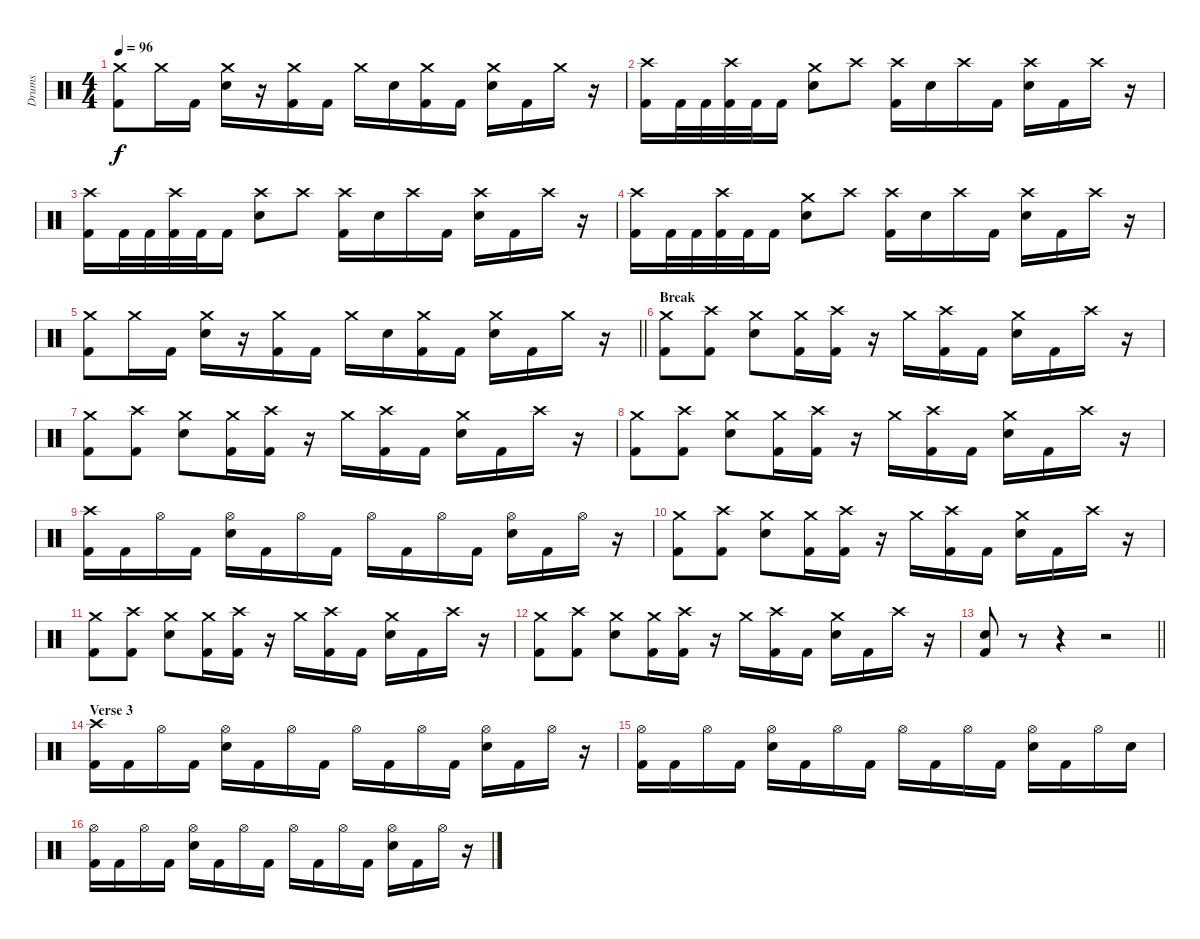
\track ("Drums" "Drums") {instrument percussion}
\staff {score}
\articulation defaults
\ts (4 4)
\tempo 96
\clef neutral
\ks c
("Crash medium (hit)" "Kick (hit) 2").8{dy f} "Crash medium (hit)".16 "Kick (hit) 2".16 ("Crash medium (hit)" "Electric Snare (hit)").16 r.16 ("Crash medium (hit)" "Kick (hit) 2").16 "Kick (hit) 2".16 "Crash medium (hit)".16 "Electric Snare (hit)".16 ("Crash medium (hit)" "Kick (hit) 2").16 "Kick (hit) 2".16 ("Crash medium (hit)" "Electric Snare (hit)").16 "Kick (hit) 2".16 "Crash medium (hit)".16 r.16 |
("Crash high (hit)" "Kick (hit) 2").16 "Kick (hit) 2".32 "Kick (hit) 2".32 ("Crash high (hit)" "Kick (hit) 2").32 "Kick (hit) 2".32 "Kick (hit) 2".16 ("Crash medium (hit)" "Electric Snare (hit)").8 "Crash high (hit)".8 ("Crash high (hit)" "Kick (hit) 2").16 "Electric Snare (hit)".16 "Crash high (hit)".16 "Kick (hit) 2".16 ("Crash high (hit)" "Electric Snare (hit)").16 "Kick (hit) 2".16 "Crash high (hit)".16 r.16 |
("Crash high (hit)" "Kick (hit) 2").16 "Kick (hit) 2".32 "Kick (hit) 2".32 ("Crash high (hit)" "Kick (hit) 2").32 "Kick (hit) 2".32 "Kick (hit) 2".16 ("Crash high (hit)" "Electric Snare (hit)").8 "Crash high (hit)".8 ("Crash high (hit)" "Kick (hit) 2").16 "Electric Snare (hit)".16 "Crash high (hit)".16 "Kick (hit) 2".16 ("Crash high (hit)" "Electric Snare (hit)").16 "Kick (hit) 2".16 "Crash high (hit)".16 r.16 |
("Crash high (hit)" "Kick (hit) 2").16 "Kick (hit) 2".32 "Kick (hit) 2".32 ("Crash high (hit)" "Kick (hit) 2").32 "Kick (hit) 2".32 "Kick (hit) 2".16 ("Crash medium (hit)" "Electric Snare (hit)").8 "Crash high (hit)".8 ("Crash high (hit)" "Kick (hit) 2").16 "Electric Snare (hit)".16 "Crash high (hit)".16 "Kick (hit) 2".16 ("Crash high (hit)" "Electric Snare (hit)").16 "Kick (hit) 2".16 "Crash high (hit)".16 r.16 |
\barLineRight lightlight
("Crash medium (hit)" "Kick (hit) 2").8 "Crash medium (hit)".16 "Kick (hit) 2".16 ("Crash medium (hit)" "Electric Snare (hit)").16 r.16 ("Crash medium (hit)" "Kick (hit) 2").16 "Kick (hit) 2".16 "Crash medium (hit)".16 "Electric Snare (hit)".16 ("Crash medium (hit)" "Kick (hit) 2").16 "Kick (hit) 2".16 ("Crash medium (hit)" "Electric Snare (hit)").16 "Kick (hit) 2".16 "Crash medium (hit)".16 r.16 |
\section ("" "Break")
("Kick (hit) 2" "Crash medium (hit)").8 ("Kick (hit) 2" "Crash high (hit)").8 ("Electric Snare (hit)" "Crash medium (hit)").8 ("Kick (hit) 2" "Crash medium (hit)").16 ("Kick (hit) 2" "Crash high (hit)").16 r.16 "Crash medium (hit)".16 ("Crash high (hit)" "Kick (hit) 2").16 "Kick (hit) 2".16 ("Crash medium (hit)" "Electric Snare (hit)").16 "Kick (hit) 2".16 "Crash high (hit)".16 r.16 |
("Kick (hit) 2" "Crash medium (hit)").8 ("Kick (hit) 2" "Crash high (hit)").8 ("Electric Snare (hit)" "Crash medium (hit)").8 ("Kick (hit) 2" "Crash medium (hit)").16 ("Kick (hit) 2" "Crash high (hit)").16 r.16 "Crash medium (hit)".16 ("Crash high (hit)" "Kick (hit) 2").16 "Kick (hit) 2".16 ("Crash medium (hit)" "Electric Snare (hit)").16 "Kick (hit) 2".16 "Crash high (hit)".16 r.16 |
("Kick (hit) 2" "Crash medium (hit)").8 ("Kick (hit) 2" "Crash high (hit)").8 ("Electric Snare (hit)" "Crash medium (hit)").8 ("Kick (hit) 2" "Crash medium (hit)").16 ("Kick (hit) 2" "Crash high (hit)").16 r.16 "Crash medium (hit)".16 ("Crash high (hit)" "Kick (hit) 2").16 "Kick (hit) 2".16 ("Crash medium (hit)" "Electric Snare (hit)").16 "Kick (hit) 2".16 "Crash high (hit)".16 r.16 |
("Crash high (hit)" "Kick (hit) 2").16 "Kick (hit) 2".16 "Hi-Hat (open)".16 "Kick (hit) 2".16 ("Hi-Hat (open)" "Electric Snare (hit)").16 "Kick (hit) 2".16 "Hi-Hat (open)".16 "Kick (hit) 2".16 "Hi-Hat (open)".16 "Kick (hit) 2".16 "Hi-Hat (open)".16 "Kick (hit) 2".16 ("Hi-Hat (open)" "Electric Snare (hit)").16 "Kick (hit) 2".16 "Hi-Hat (open)".16 r.16 |
("Kick (hit) 2" "Crash medium (hit)").8 ("Kick (hit) 2" "Crash high (hit)").8 ("Electric Snare (hit)" "Crash medium (hit)").8 ("Kick (hit) 2" "Crash medium (hit)").16 ("Kick (hit) 2" "Crash high (hit)").16 r.16 "Crash medium (hit)".16 ("Crash high (hit)" "Kick (hit) 2").16 "Kick (hit) 2".16 ("Crash medium (hit)" "Electric Snare (hit)").16 "Kick (hit) 2".16 "Crash high (hit)".16 r.16 |
("Kick (hit) 2" "Crash medium (hit)").8 ("Kick (hit) 2" "Crash high (hit)").8 ("Electric Snare (hit)" "Crash medium (hit)").8 ("Kick (hit) 2" "Crash medium (hit)").16 ("Kick (hit) 2" "Crash high (hit)").16 r.16 "Crash medium (hit)".16 ("Crash high (hit)" "Kick (hit) 2").16 "Kick (hit) 2".16 ("Crash medium (hit)" "Electric Snare (hit)").16 "Kick (hit) 2".16 "Crash high (hit)".16 r.16 |
("Kick (hit) 2" "Crash medium (hit)").8 ("Kick (hit) 2" "Crash high (hit)").8 ("Electric Snare (hit)" "Crash medium (hit)").8 ("Kick (hit) 2" "Crash medium (hit)").16 ("Kick (hit) 2" "Crash high (hit)").16 r.16 "Crash medium (hit)".16 ("Crash high (hit)" "Kick (hit) 2").16 "Kick (hit) 2".16 ("Crash medium (hit)" "Electric Snare (hit)").16 "Kick (hit) 2".16 "Crash high (hit)".16 r.16 |
\barLineRight lightlight
("Electric Snare (hit)" "Kick (hit) 2").8 r.8 r.4 r.2 |
\section ("" "Verse 3")
("Crash high (hit)" "Kick (hit) 2").16 "Kick (hit) 2".16 "Hi-Hat (open)".16 "Kick (hit) 2".16 ("Hi-Hat (open)" "Electric Snare (hit)").16 "Kick (hit) 2".16 "Hi-Hat (open)".16 "Kick (hit) 2".16 "Hi-Hat (open)".16 "Kick (hit) 2".16 "Hi-Hat (open)".16 "Kick (hit) 2".16 ("Hi-Hat (open)" "Electric Snare (hit)").16 "Kick (hit) 2".16 "Hi-Hat (open)".16 r.16 |
("Hi-Hat (open)" "Kick (hit) 2").16 "Kick (hit) 2".16 "Hi-Hat (open)".16 "Kick (hit) 2".16 ("Hi-Hat (open)" "Electric Snare (hit)").16 "Kick (hit) 2".16 "Hi-Hat (open)".16 "Kick (hit) 2".16 "Hi-Hat (open)".16 "Kick (hit) 2".16 "Hi-Hat (open)".16 "Kick (hit) 2".16 ("Hi-Hat (open)" "Electric Snare (hit)").16 "Kick (hit) 2".16 "Hi-Hat (open)".16 "Electric Snare (hit)".16 |
("Hi-Hat (open)" "Kick (hit) 2").16 "Kick (hit) 2".16 "Hi-Hat (open)".16 "Kick (hit) 2".16 ("Hi-Hat (open)" "Electric Snare (hit)").16 "Kick (hit) 2".16 "Hi-Hat (open)".16 "Kick (hit) 2".16 "Hi-Hat (open)".16 "Kick (hit) 2".16 "Hi-Hat (open)".16 "Kick (hit) 2".16 ("Hi-Hat (open)" "Electric Snare (hit)").16 "Kick (hit) 2".16 "Hi-Hat (open)".16 r.16
